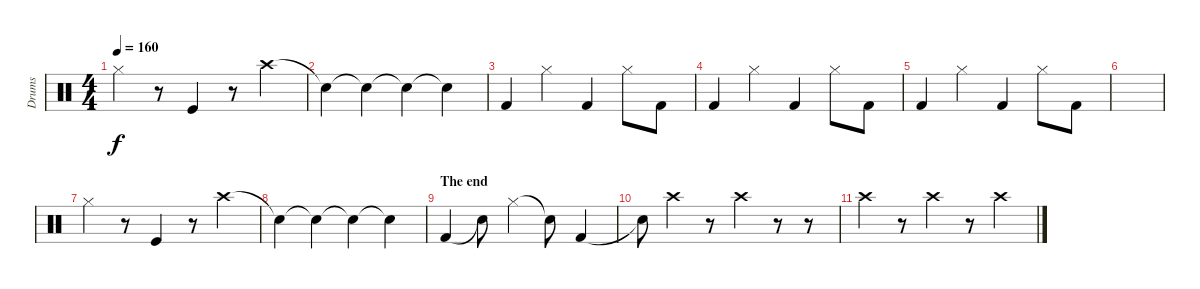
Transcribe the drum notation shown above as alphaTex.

\track ("Drums" "Drums") {instrument percussion}
\staff {score}
\articulation defaults
\ts (4 4)
\tempo 160
\clef neutral
\ks c "Hi-Hat (closed)".4{dy f}
r.8 "Kick (hit)".4 r.8 "Crash high (hit)".4 |
"Snare (hit)"{t}.4 "Snare (hit)"{t}.4 "Snare (hit)"{t}.4 "Snare (hit)"{t}.4 |
"Kick (hit) 2".4 "Hi-Hat (closed)".4 "Kick (hit) 2".4 "Hi-Hat (closed)".8 "Kick (hit) 2".8 |
"Kick (hit) 2".4 "Hi-Hat (closed)".4 "Kick (hit) 2".4 "Hi-Hat (closed)".8 "Kick (hit) 2".8 |
"Kick (hit) 2".4 "Hi-Hat (closed)".4 "Kick (hit) 2".4 "Hi-Hat (closed)".8 "Kick (hit) 2".8 |
|
"Hi-Hat (closed)".4 r.8 "Kick (hit)".4 r.8 "Crash high (hit)".4 |
"Snare (hit)"{t}.4 "Snare (hit)"{t}.4 "Snare (hit)"{t}.4 "Snare (hit)"{t}.4 |
\section ("" "The end")
"Kick (hit) 2".4 "Snare (hit)"{t}.8 "Hi-Hat (closed)".4 "Snare (hit)"{t}.8 "Kick (hit) 2".4 |
"Snare (hit)"{t}.8 "Crash high (hit)".4 r.8 "Crash high (hit)".4 r.8 r.8 |
"Crash high (hit)".4 r.8 "Crash high (hit)".4 r.8 "Crash high (hit)".4
